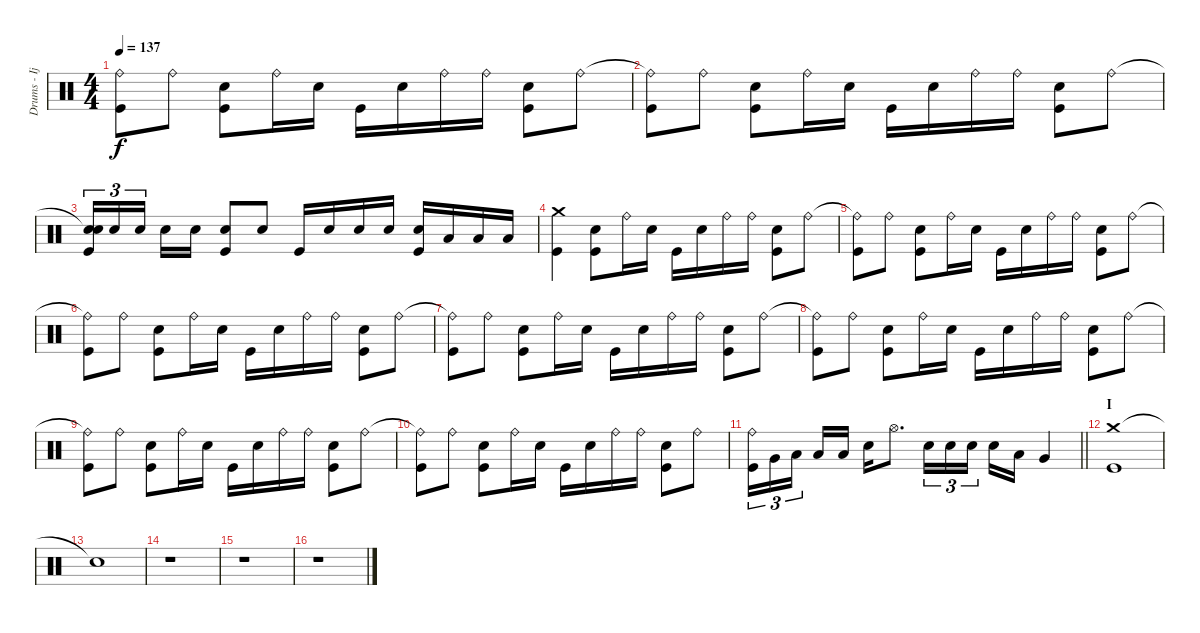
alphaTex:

\track ("Drums - Ijichi" "Drums - Ij") {instrument percussion}
\staff {score}
\articulation defaults
\ts (4 4)
\tempo 137
\clef neutral
\ks c
("Ride (bell)"{t} "Kick (hit)").8{dy f} "Ride (bell)".8 ("Electric Snare (hit)" "Kick (hit)").8 "Ride (bell)".16 "Electric Snare (hit)".16 "Kick (hit)".16 "Electric Snare (hit)".16 "Ride (bell)".16 "Ride (bell)".16 ("Electric Snare (hit)" "Kick (hit)").8 "Ride (bell)".8 |
("Ride (bell)"{t} "Kick (hit)").8 "Ride (bell)".8 ("Electric Snare (hit)" "Kick (hit)").8 "Ride (bell)".16 "Electric Snare (hit)".16 "Kick (hit)".16 "Electric Snare (hit)".16 "Ride (bell)".16 "Ride (bell)".16 ("Electric Snare (hit)" "Kick (hit)").8 "Ride (bell)".8 |
("Snare (hit)"{t} "Electric Snare (hit)" "Kick (hit)").16{tu (3 2)} "Electric Snare (hit)".16{tu (3 2)} "Electric Snare (hit)".16{tu (3 2) beam splitsecondary} "Electric Snare (hit)".16 "Electric Snare (hit)".16 ("Electric Snare (hit)" "Kick (hit)").8 "Electric Snare (hit)".8 "Kick (hit)".16 "Electric Snare (hit)".16 "Electric Snare (hit)".16 "Electric Snare (hit)".16 ("Electric Snare (hit)" "Kick (hit)").16 "Low Tom (hit)".16 "Low Tom (hit)".16 "Low Tom (hit)".16 |
("Crash medium (hit)" "Kick (hit)").4 ("Electric Snare (hit)" "Kick (hit)").8 "Ride (bell)".16 "Electric Snare (hit)".16 "Kick (hit)".16 "Electric Snare (hit)".16 "Ride (bell)".16 "Ride (bell)".16 ("Electric Snare (hit)" "Kick (hit)").8 "Ride (bell)".8 |
("Ride (bell)"{t} "Kick (hit)").8 "Ride (bell)".8 ("Electric Snare (hit)" "Kick (hit)").8 "Ride (bell)".16 "Electric Snare (hit)".16 "Kick (hit)".16 "Electric Snare (hit)".16 "Ride (bell)".16 "Ride (bell)".16 ("Electric Snare (hit)" "Kick (hit)").8 "Ride (bell)".8 |
("Ride (bell)"{t} "Kick (hit)").8 "Ride (bell)".8 ("Electric Snare (hit)" "Kick (hit)").8 "Ride (bell)".16 "Electric Snare (hit)".16 "Kick (hit)".16 "Electric Snare (hit)".16 "Ride (bell)".16 "Ride (bell)".16 ("Electric Snare (hit)" "Kick (hit)").8 "Ride (bell)".8 |
("Ride (bell)"{t} "Kick (hit)").8 "Ride (bell)".8 ("Electric Snare (hit)" "Kick (hit)").8 "Ride (bell)".16 "Electric Snare (hit)".16 "Kick (hit)".16 "Electric Snare (hit)".16 "Ride (bell)".16 "Ride (bell)".16 ("Electric Snare (hit)" "Kick (hit)").8 "Ride (bell)".8 |
("Ride (bell)"{t} "Kick (hit)").8 "Ride (bell)".8 ("Electric Snare (hit)" "Kick (hit)").8 "Ride (bell)".16 "Electric Snare (hit)".16 "Kick (hit)".16 "Electric Snare (hit)".16 "Ride (bell)".16 "Ride (bell)".16 ("Electric Snare (hit)" "Kick (hit)").8 "Ride (bell)".8 |
("Ride (bell)"{t} "Kick (hit)").8 "Ride (bell)".8 ("Electric Snare (hit)" "Kick (hit)").8 "Ride (bell)".16 "Electric Snare (hit)".16 "Kick (hit)".16 "Electric Snare (hit)".16 "Ride (bell)".16 "Ride (bell)".16 ("Electric Snare (hit)" "Kick (hit)").8 "Ride (bell)".8 |
("Ride (bell)"{t} "Kick (hit)").8 "Ride (bell)".8 ("Electric Snare (hit)" "Kick (hit)").8 "Ride (bell)".16 "Electric Snare (hit)".16 "Kick (hit)".16 "Electric Snare (hit)".16 "Ride (bell)".16 "Ride (bell)".16 ("Electric Snare (hit)" "Kick (hit)").8 "Ride (bell)".8 |
\barLineRight lightlight
("Ride (bell)" "Kick (hit)").16{tu (3 2)} "Very Low Tom (hit)".16{tu (3 2)} "Low Tom (hit)".16{tu (3 2) beam splitsecondary} "Low Tom (hit)".16 "Low Tom (hit)".16 "Electric Snare (hit)".16 "Hi-Hat (open)".8{d} "Electric Snare (hit)".16{tu (3 2)} "Electric Snare (hit)".16{tu (3 2)} "Electric Snare (hit)".16{tu (3 2) beam splitsecondary} "Electric Snare (hit)".16 "Low Tom (hit)".16 "Very Low Tom (hit)".4 |
\section ("" "I")
("Crash medium (hit)" "Kick (hit)").1 |
"Snare (hit)"{t}.1 |
r.1 |
r.1 |
r.1
